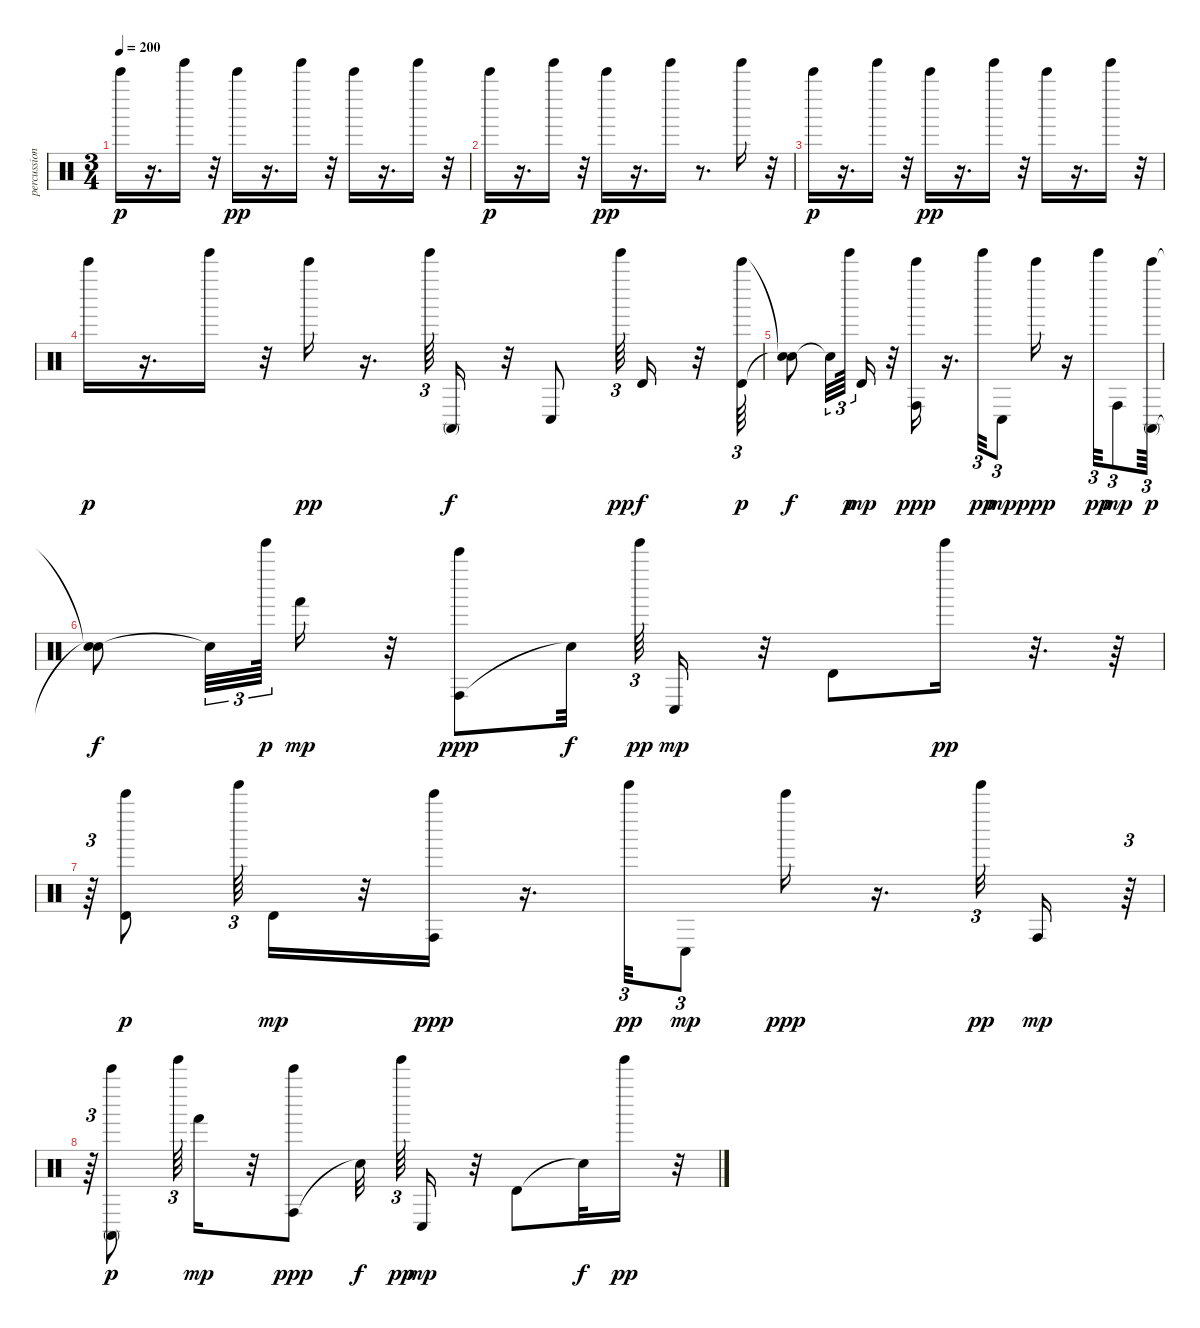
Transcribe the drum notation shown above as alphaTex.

\track ("percussion" "percussion") {instrument percussion}
\staff {score}
\articulation defaults
\ts (3 4)
\tempo 200
\clef neutral
\ks c "Bell Tree (hit)".16{dy p}
r.16{d} "Tinkle Bell (hit)".16 r.32 "Bell Tree (hit)".16{dy pp} r.16{d} "Tinkle Bell (hit)".16 r.32 "Bell Tree (hit)".16 r.16{d} "Tinkle Bell (hit)".16 r.32 |
"Bell Tree (hit)".16{dy p} r.16{d} "Tinkle Bell (hit)".16 r.32 "Bell Tree (hit)".16{dy pp} r.16{d} "Tinkle Bell (hit)".16 r.8{d} "Tinkle Bell (hit)".16 r.32 |
"Bell Tree (hit)".16{dy p} r.16{d} "Tinkle Bell (hit)".16 r.32 "Bell Tree (hit)".16{dy pp} r.16{d} "Tinkle Bell (hit)".16 r.32 "Bell Tree (hit)".16 r.16{d} "Tinkle Bell (hit)".16 r.32 |
"Bell Tree (hit)".16{dy p} r.16{d} "Tinkle Bell (hit)".16 r.32 "Bell Tree (hit)".16{dy pp} r.16{d} "Tinkle Bell (hit)".64{tu (3 2)} "Conga high (mute)".16{dy f} r.32 "Conga low (hit)".8 "Tinkle Bell (hit)".64{tu (3 2) dy pp} "Timbale high (hit)".16{dy f} r.32 ("Timbale high (hit)" "Bell Tree (hit)").64{tu (3 2) dy p} |
("Snare (hit)"{t} "Snare (hit)"{t}).8{dy f} "Snare (hit)"{t}.32{tu (3 2)} "Tinkle Bell (hit)".64{tu (3 2) dy p} "Timbale high (hit)".16{dy mp} r.32 ("Conga high (hit)" "Bell Tree (hit)").16{dy ppp} r.16{d} "Tinkle Bell (hit)".32{tu (3 2) dy pp} "Conga low (hit)".8{tu (3 2) dy mp} "Bell Tree (hit)".16{dy ppp} r.16 "Tinkle Bell (hit)".32{tu (3 2) dy pp} "Conga high (hit)".8{tu (3 2) dy mp} ("Conga high (mute)" "Bell Tree (hit)").64{tu (3 2) dy p} |
("Snare (hit)"{t} "Snare (hit)"{t}).8{dy f} "Snare (hit)"{t}.32{tu (3 2)} "Tinkle Bell (hit)".64{tu (3 2) dy p} "Hand (hit)".16{dy mp} r.32 ("Conga high (hit)" "Bell Tree (hit)").8{dy ppp} "Snare (hit)"{t}.32{dy f} "Tinkle Bell (hit)".64{tu (3 2) dy pp} "Conga low (hit)".16{dy mp} r.32 "Timbale high (hit)".8 "Tinkle Bell (hit)".16{dy pp} r.32{d} r.64 |
r.64{tu (3 2)} ("Timbale high (hit)" "Bell Tree (hit)").8{dy p} "Tinkle Bell (hit)".64{tu (3 2)} "Timbale high (hit)".16{dy mp} r.32 ("Conga high (hit)" "Bell Tree (hit)").16{dy ppp} r.16{d} "Tinkle Bell (hit)".32{tu (3 2) dy pp} "Conga low (hit)".8{tu (3 2) dy mp} "Bell Tree (hit)".16{dy ppp} r.16{d} "Tinkle Bell (hit)".32{tu (3 2) dy pp} "Conga high (hit)".16{dy mp} r.64{tu (3 2)} |
r.64{tu (3 2)} ("Conga high (mute)" "Bell Tree (hit)").8{dy p} "Tinkle Bell (hit)".64{tu (3 2)} "Hand (hit)".16{dy mp} r.32 ("Conga high (hit)" "Bell Tree (hit)").8{dy ppp} "Snare (hit)"{t}.32{dy f} "Tinkle Bell (hit)".64{tu (3 2) dy pp} "Conga low (hit)".16{dy mp} r.32 "Timbale high (hit)".8 "Snare (hit)"{t}.32{dy f} "Tinkle Bell (hit)".16{dy pp} r.32
